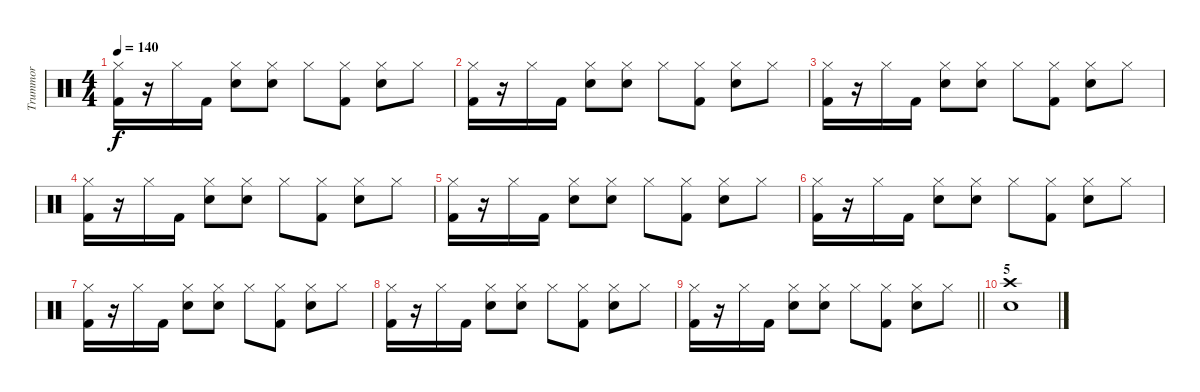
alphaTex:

\track ("Trummor" "Trummor") {instrument percussion}
\staff {score}
\articulation defaults
\ts (4 4)
\tempo 140
\clef neutral
\ks c
("Hi-Hat (closed)" "Kick (hit) 2").16{dy f} r.16 "Hi-Hat (closed)".16 "Kick (hit) 2".16 ("Hi-Hat (closed)" "Electric Snare (hit)").8 ("Hi-Hat (closed)" "Electric Snare (hit)").8 "Hi-Hat (closed)".8 ("Hi-Hat (closed)" "Kick (hit) 2").8 ("Hi-Hat (closed)" "Electric Snare (hit)").8 "Hi-Hat (closed)".8 |
("Hi-Hat (closed)" "Kick (hit) 2").16 r.16 "Hi-Hat (closed)".16 "Kick (hit) 2".16 ("Hi-Hat (closed)" "Electric Snare (hit)").8 ("Hi-Hat (closed)" "Electric Snare (hit)").8 "Hi-Hat (closed)".8 ("Hi-Hat (closed)" "Kick (hit) 2").8 ("Hi-Hat (closed)" "Electric Snare (hit)").8 "Hi-Hat (closed)".8 |
("Hi-Hat (closed)" "Kick (hit) 2").16 r.16 "Hi-Hat (closed)".16 "Kick (hit) 2".16 ("Hi-Hat (closed)" "Electric Snare (hit)").8 ("Hi-Hat (closed)" "Electric Snare (hit)").8 "Hi-Hat (closed)".8 ("Hi-Hat (closed)" "Kick (hit) 2").8 ("Hi-Hat (closed)" "Electric Snare (hit)").8 "Hi-Hat (closed)".8 |
("Hi-Hat (closed)" "Kick (hit) 2").16 r.16 "Hi-Hat (closed)".16 "Kick (hit) 2".16 ("Hi-Hat (closed)" "Electric Snare (hit)").8 ("Hi-Hat (closed)" "Electric Snare (hit)").8 "Hi-Hat (closed)".8 ("Hi-Hat (closed)" "Kick (hit) 2").8 ("Hi-Hat (closed)" "Electric Snare (hit)").8 "Hi-Hat (closed)".8 |
("Hi-Hat (closed)" "Kick (hit) 2").16 r.16 "Hi-Hat (closed)".16 "Kick (hit) 2".16 ("Hi-Hat (closed)" "Electric Snare (hit)").8 ("Hi-Hat (closed)" "Electric Snare (hit)").8 "Hi-Hat (closed)".8 ("Hi-Hat (closed)" "Kick (hit) 2").8 ("Hi-Hat (closed)" "Electric Snare (hit)").8 "Hi-Hat (closed)".8 |
("Hi-Hat (closed)" "Kick (hit) 2").16 r.16 "Hi-Hat (closed)".16 "Kick (hit) 2".16 ("Hi-Hat (closed)" "Electric Snare (hit)").8 ("Hi-Hat (closed)" "Electric Snare (hit)").8 "Hi-Hat (closed)".8 ("Hi-Hat (closed)" "Kick (hit) 2").8 ("Hi-Hat (closed)" "Electric Snare (hit)").8 "Hi-Hat (closed)".8 |
("Hi-Hat (closed)" "Kick (hit) 2").16 r.16 "Hi-Hat (closed)".16 "Kick (hit) 2".16 ("Hi-Hat (closed)" "Electric Snare (hit)").8 ("Hi-Hat (closed)" "Electric Snare (hit)").8 "Hi-Hat (closed)".8 ("Hi-Hat (closed)" "Kick (hit) 2").8 ("Hi-Hat (closed)" "Electric Snare (hit)").8 "Hi-Hat (closed)".8 |
("Hi-Hat (closed)" "Kick (hit) 2").16 r.16 "Hi-Hat (closed)".16 "Kick (hit) 2".16 ("Hi-Hat (closed)" "Electric Snare (hit)").8 ("Hi-Hat (closed)" "Electric Snare (hit)").8 "Hi-Hat (closed)".8 ("Hi-Hat (closed)" "Kick (hit) 2").8 ("Hi-Hat (closed)" "Electric Snare (hit)").8 "Hi-Hat (closed)".8 |
\barLineRight lightlight
("Hi-Hat (closed)" "Kick (hit) 2").16 r.16 "Hi-Hat (closed)".16 "Kick (hit) 2".16 ("Hi-Hat (closed)" "Electric Snare (hit)").8 ("Hi-Hat (closed)" "Electric Snare (hit)").8 "Hi-Hat (closed)".8 ("Hi-Hat (closed)" "Kick (hit) 2").8 ("Hi-Hat (closed)" "Electric Snare (hit)").8 "Hi-Hat (closed)".8 |
\section ("" "5")
("Crash high (hit)" "Electric Snare (hit)").1
